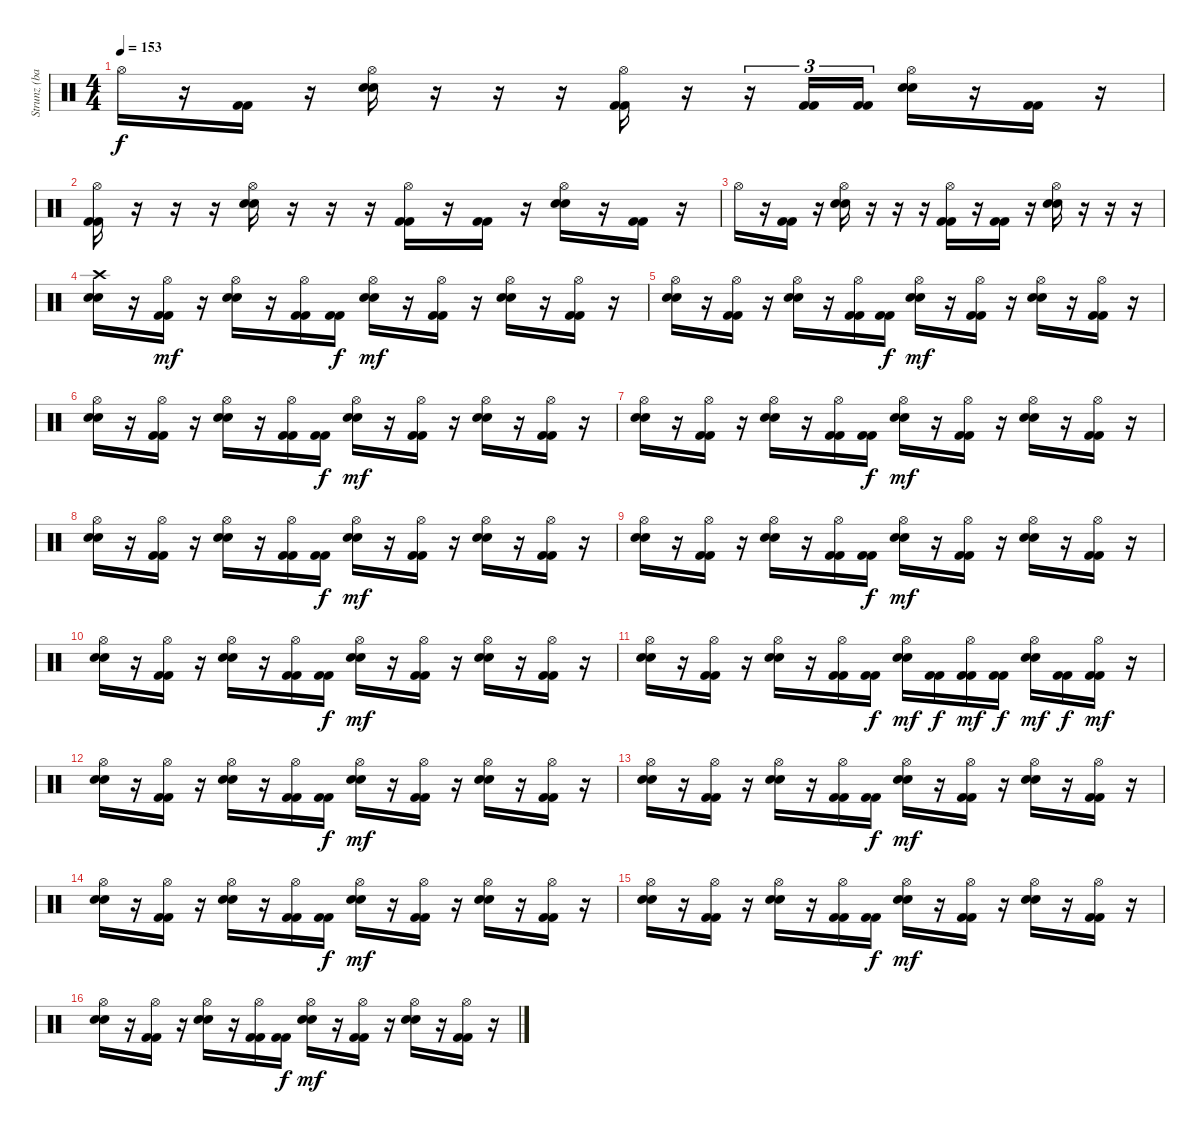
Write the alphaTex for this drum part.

\track ("Strunz (bateria)" "Strunz (ba") {instrument percussion}
\staff {score}
\articulation defaults
\ts (4 4)
\tempo 153
\clef neutral
\ks c "Hi-Hat (open)".16{dy f}
r.16 ("Kick (hit) 2" "Kick (hit) 2").16 r.16 ("Hi-Hat (open)" "Snare (hit) 2" "Snare (hit) 2").16 r.16 r.16 r.16 ("Hi-Hat (open)" "Kick (hit) 2" "Kick (hit) 2").16 r.16 r.16{tu (3 2)} ("Kick (hit) 2" "Kick (hit) 2").16{tu (3 2)} ("Kick (hit) 2" "Kick (hit) 2").16{tu (3 2)} ("Hi-Hat (open)" "Snare (hit) 2" "Snare (hit) 2").16 r.16 ("Kick (hit) 2" "Kick (hit) 2").16 r.16 |
("Hi-Hat (open)" "Kick (hit) 2" "Kick (hit) 2").16 r.16 r.16 r.16 ("Hi-Hat (open)" "Snare (hit) 2" "Snare (hit) 2").16 r.16 r.16 r.16 ("Hi-Hat (open)" "Kick (hit) 2" "Kick (hit) 2").16 r.16 ("Kick (hit) 2" "Kick (hit) 2").16 r.16 ("Hi-Hat (open)" "Snare (hit) 2" "Snare (hit) 2").16 r.16 ("Kick (hit) 2" "Kick (hit) 2").16 r.16 |
"Hi-Hat (open)".16 r.16 ("Kick (hit) 2" "Kick (hit) 2").16 r.16 ("Hi-Hat (open)" "Snare (hit) 2" "Snare (hit) 2").16 r.16 r.16 r.16 ("Hi-Hat (open)" "Kick (hit) 2" "Kick (hit) 2").16 r.16 ("Kick (hit) 2" "Kick (hit) 2").16 r.16 ("Hi-Hat (open)" "Snare (hit) 2" "Snare (hit) 2").16 r.16 r.16 r.16 |
("Crash high (hit)" "Snare (hit) 2" "Snare (hit) 2").16 r.16 ("Hi-Hat (open)" "Kick (hit) 2" "Kick (hit) 2").16{dy mf} r.16 ("Hi-Hat (open)" "Snare (hit) 2" "Snare (hit) 2").16 r.16 ("Hi-Hat (open)" "Kick (hit) 2" "Kick (hit) 2").16 ("Kick (hit) 2" "Kick (hit) 2").16{dy f} ("Hi-Hat (open)" "Snare (hit) 2" "Snare (hit) 2").16{dy mf} r.16 ("Hi-Hat (open)" "Kick (hit) 2" "Kick (hit) 2").16 r.16 ("Hi-Hat (open)" "Snare (hit) 2" "Snare (hit) 2").16 r.16 ("Hi-Hat (open)" "Kick (hit) 2" "Kick (hit) 2").16 r.16 |
("Hi-Hat (open)" "Snare (hit) 2" "Snare (hit) 2").16 r.16 ("Hi-Hat (open)" "Kick (hit) 2" "Kick (hit) 2").16 r.16 ("Hi-Hat (open)" "Snare (hit) 2" "Snare (hit) 2").16 r.16 ("Hi-Hat (open)" "Kick (hit) 2" "Kick (hit) 2").16 ("Kick (hit) 2" "Kick (hit) 2").16{dy f} ("Hi-Hat (open)" "Snare (hit) 2" "Snare (hit) 2").16{dy mf} r.16 ("Hi-Hat (open)" "Kick (hit) 2" "Kick (hit) 2").16 r.16 ("Hi-Hat (open)" "Snare (hit) 2" "Snare (hit) 2").16 r.16 ("Hi-Hat (open)" "Kick (hit) 2" "Kick (hit) 2").16 r.16 |
("Hi-Hat (open)" "Snare (hit) 2" "Snare (hit) 2").16 r.16 ("Hi-Hat (open)" "Kick (hit) 2" "Kick (hit) 2").16 r.16 ("Hi-Hat (open)" "Snare (hit) 2" "Snare (hit) 2").16 r.16 ("Hi-Hat (open)" "Kick (hit) 2" "Kick (hit) 2").16 ("Kick (hit) 2" "Kick (hit) 2").16{dy f} ("Hi-Hat (open)" "Snare (hit) 2" "Snare (hit) 2").16{dy mf} r.16 ("Hi-Hat (open)" "Kick (hit) 2" "Kick (hit) 2").16 r.16 ("Hi-Hat (open)" "Snare (hit) 2" "Snare (hit) 2").16 r.16 ("Hi-Hat (open)" "Kick (hit) 2" "Kick (hit) 2").16 r.16 |
("Hi-Hat (open)" "Snare (hit) 2" "Snare (hit) 2").16 r.16 ("Hi-Hat (open)" "Kick (hit) 2" "Kick (hit) 2").16 r.16 ("Hi-Hat (open)" "Snare (hit) 2" "Snare (hit) 2").16 r.16 ("Hi-Hat (open)" "Kick (hit) 2" "Kick (hit) 2").16 ("Kick (hit) 2" "Kick (hit) 2").16{dy f} ("Hi-Hat (open)" "Snare (hit) 2" "Snare (hit) 2").16{dy mf} r.16 ("Hi-Hat (open)" "Kick (hit) 2" "Kick (hit) 2").16 r.16 ("Hi-Hat (open)" "Snare (hit) 2" "Snare (hit) 2").16 r.16 ("Hi-Hat (open)" "Kick (hit) 2" "Kick (hit) 2").16 r.16 |
("Hi-Hat (open)" "Snare (hit) 2" "Snare (hit) 2").16 r.16 ("Hi-Hat (open)" "Kick (hit) 2" "Kick (hit) 2").16 r.16 ("Hi-Hat (open)" "Snare (hit) 2" "Snare (hit) 2").16 r.16 ("Hi-Hat (open)" "Kick (hit) 2" "Kick (hit) 2").16 ("Kick (hit) 2" "Kick (hit) 2").16{dy f} ("Hi-Hat (open)" "Snare (hit) 2" "Snare (hit) 2").16{dy mf} r.16 ("Hi-Hat (open)" "Kick (hit) 2" "Kick (hit) 2").16 r.16 ("Hi-Hat (open)" "Snare (hit) 2" "Snare (hit) 2").16 r.16 ("Hi-Hat (open)" "Kick (hit) 2" "Kick (hit) 2").16 r.16 |
("Hi-Hat (open)" "Snare (hit) 2" "Snare (hit) 2").16 r.16 ("Hi-Hat (open)" "Kick (hit) 2" "Kick (hit) 2").16 r.16 ("Hi-Hat (open)" "Snare (hit) 2" "Snare (hit) 2").16 r.16 ("Hi-Hat (open)" "Kick (hit) 2" "Kick (hit) 2").16 ("Kick (hit) 2" "Kick (hit) 2").16{dy f} ("Hi-Hat (open)" "Snare (hit) 2" "Snare (hit) 2").16{dy mf} r.16 ("Hi-Hat (open)" "Kick (hit) 2" "Kick (hit) 2").16 r.16 ("Hi-Hat (open)" "Snare (hit) 2" "Snare (hit) 2").16 r.16 ("Hi-Hat (open)" "Kick (hit) 2" "Kick (hit) 2").16 r.16 |
("Hi-Hat (open)" "Snare (hit) 2" "Snare (hit) 2").16 r.16 ("Hi-Hat (open)" "Kick (hit) 2" "Kick (hit) 2").16 r.16 ("Hi-Hat (open)" "Snare (hit) 2" "Snare (hit) 2").16 r.16 ("Hi-Hat (open)" "Kick (hit) 2" "Kick (hit) 2").16 ("Kick (hit) 2" "Kick (hit) 2").16{dy f} ("Hi-Hat (open)" "Snare (hit) 2" "Snare (hit) 2").16{dy mf} r.16 ("Hi-Hat (open)" "Kick (hit) 2" "Kick (hit) 2").16 r.16 ("Hi-Hat (open)" "Snare (hit) 2" "Snare (hit) 2").16 r.16 ("Hi-Hat (open)" "Kick (hit) 2" "Kick (hit) 2").16 r.16 |
("Hi-Hat (open)" "Snare (hit) 2" "Snare (hit) 2").16 r.16 ("Hi-Hat (open)" "Kick (hit) 2" "Kick (hit) 2").16 r.16 ("Hi-Hat (open)" "Snare (hit) 2" "Snare (hit) 2").16 r.16 ("Hi-Hat (open)" "Kick (hit) 2" "Kick (hit) 2").16 ("Kick (hit) 2" "Kick (hit) 2").16{dy f} ("Hi-Hat (open)" "Snare (hit) 2" "Snare (hit) 2").16{dy mf} ("Kick (hit) 2" "Kick (hit) 2").16{dy f} ("Hi-Hat (open)" "Kick (hit) 2" "Kick (hit) 2").16{dy mf} ("Kick (hit) 2" "Kick (hit) 2").16{dy f} ("Hi-Hat (open)" "Snare (hit) 2" "Snare (hit) 2").16{dy mf} ("Kick (hit) 2" "Kick (hit) 2").16{dy f} ("Hi-Hat (open)" "Kick (hit) 2" "Kick (hit) 2").16{dy mf} r.16 |
("Hi-Hat (open)" "Snare (hit) 2" "Snare (hit) 2").16 r.16 ("Hi-Hat (open)" "Kick (hit) 2" "Kick (hit) 2").16 r.16 ("Hi-Hat (open)" "Snare (hit) 2" "Snare (hit) 2").16 r.16 ("Hi-Hat (open)" "Kick (hit) 2" "Kick (hit) 2").16 ("Kick (hit) 2" "Kick (hit) 2").16{dy f} ("Hi-Hat (open)" "Snare (hit) 2" "Snare (hit) 2").16{dy mf} r.16 ("Hi-Hat (open)" "Kick (hit) 2" "Kick (hit) 2").16 r.16 ("Hi-Hat (open)" "Snare (hit) 2" "Snare (hit) 2").16 r.16 ("Hi-Hat (open)" "Kick (hit) 2" "Kick (hit) 2").16 r.16 |
("Hi-Hat (open)" "Snare (hit) 2" "Snare (hit) 2").16 r.16 ("Hi-Hat (open)" "Kick (hit) 2" "Kick (hit) 2").16 r.16 ("Hi-Hat (open)" "Snare (hit) 2" "Snare (hit) 2").16 r.16 ("Hi-Hat (open)" "Kick (hit) 2" "Kick (hit) 2").16 ("Kick (hit) 2" "Kick (hit) 2").16{dy f} ("Hi-Hat (open)" "Snare (hit) 2" "Snare (hit) 2").16{dy mf} r.16 ("Hi-Hat (open)" "Kick (hit) 2" "Kick (hit) 2").16 r.16 ("Hi-Hat (open)" "Snare (hit) 2" "Snare (hit) 2").16 r.16 ("Hi-Hat (open)" "Kick (hit) 2" "Kick (hit) 2").16 r.16 |
("Hi-Hat (open)" "Snare (hit) 2" "Snare (hit) 2").16 r.16 ("Hi-Hat (open)" "Kick (hit) 2" "Kick (hit) 2").16 r.16 ("Hi-Hat (open)" "Snare (hit) 2" "Snare (hit) 2").16 r.16 ("Hi-Hat (open)" "Kick (hit) 2" "Kick (hit) 2").16 ("Kick (hit) 2" "Kick (hit) 2").16{dy f} ("Hi-Hat (open)" "Snare (hit) 2" "Snare (hit) 2").16{dy mf} r.16 ("Hi-Hat (open)" "Kick (hit) 2" "Kick (hit) 2").16 r.16 ("Hi-Hat (open)" "Snare (hit) 2" "Snare (hit) 2").16 r.16 ("Hi-Hat (open)" "Kick (hit) 2" "Kick (hit) 2").16 r.16 |
("Hi-Hat (open)" "Snare (hit) 2" "Snare (hit) 2").16 r.16 ("Hi-Hat (open)" "Kick (hit) 2" "Kick (hit) 2").16 r.16 ("Hi-Hat (open)" "Snare (hit) 2" "Snare (hit) 2").16 r.16 ("Hi-Hat (open)" "Kick (hit) 2" "Kick (hit) 2").16 ("Kick (hit) 2" "Kick (hit) 2").16{dy f} ("Hi-Hat (open)" "Snare (hit) 2" "Snare (hit) 2").16{dy mf} r.16 ("Hi-Hat (open)" "Kick (hit) 2" "Kick (hit) 2").16 r.16 ("Hi-Hat (open)" "Snare (hit) 2" "Snare (hit) 2").16 r.16 ("Hi-Hat (open)" "Kick (hit) 2" "Kick (hit) 2").16 r.16 |
("Hi-Hat (open)" "Snare (hit) 2" "Snare (hit) 2").16 r.16 ("Hi-Hat (open)" "Kick (hit) 2" "Kick (hit) 2").16 r.16 ("Hi-Hat (open)" "Snare (hit) 2" "Snare (hit) 2").16 r.16 ("Hi-Hat (open)" "Kick (hit) 2" "Kick (hit) 2").16 ("Kick (hit) 2" "Kick (hit) 2").16{dy f} ("Hi-Hat (open)" "Snare (hit) 2" "Snare (hit) 2").16{dy mf} r.16 ("Hi-Hat (open)" "Kick (hit) 2" "Kick (hit) 2").16 r.16 ("Hi-Hat (open)" "Snare (hit) 2" "Snare (hit) 2").16 r.16 ("Hi-Hat (open)" "Kick (hit) 2" "Kick (hit) 2").16 r.16
